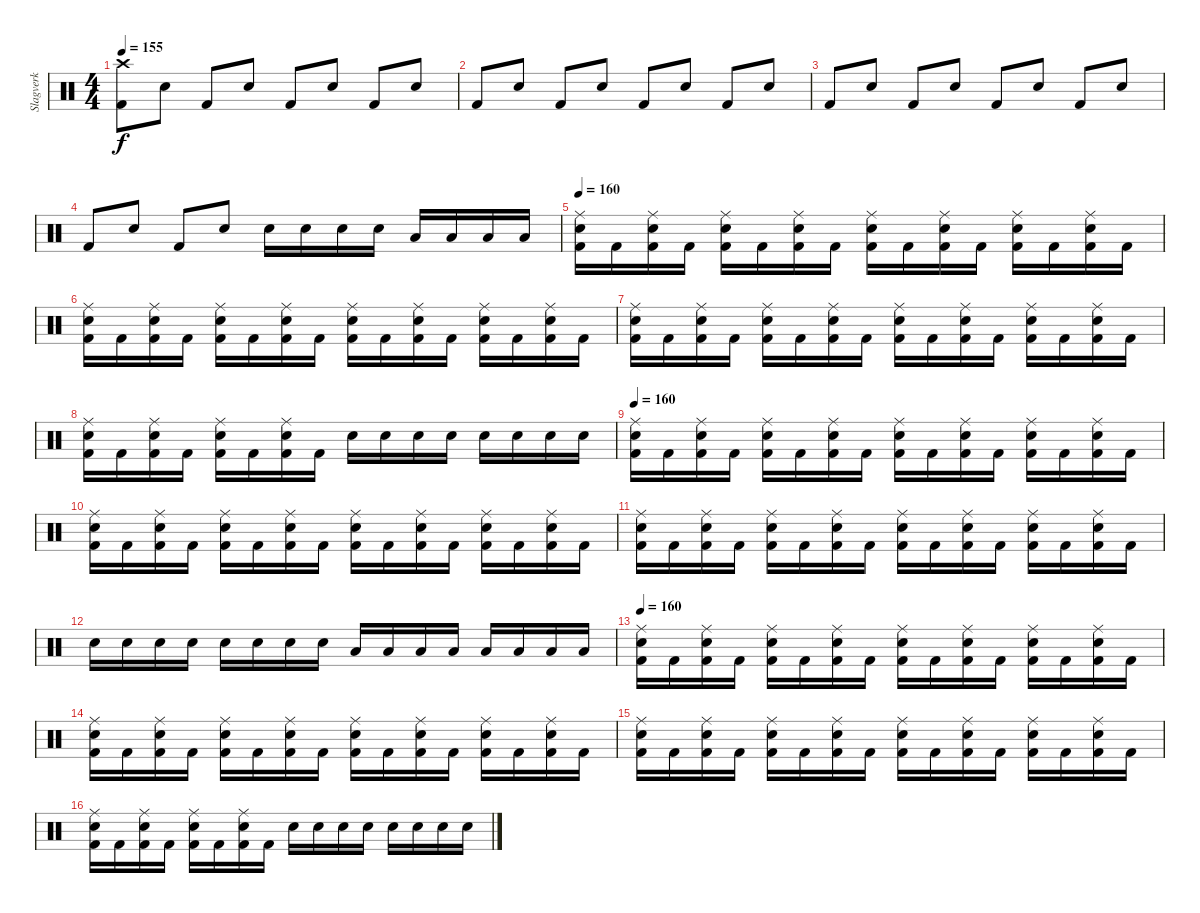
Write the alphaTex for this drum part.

\track ("Slagverk" "Slagverk") {instrument percussion}
\staff {score}
\articulation defaults
\ts (4 4)
\tempo 155
\clef neutral
\ks c
("Crash high (hit)" "Kick (hit) 2").8{dy f} "Electric Snare (hit)".8 "Kick (hit) 2".8 "Electric Snare (hit)".8 "Kick (hit) 2".8 "Electric Snare (hit)".8 "Kick (hit) 2".8 "Electric Snare (hit)".8 |
"Kick (hit) 2".8 "Electric Snare (hit)".8 "Kick (hit) 2".8 "Electric Snare (hit)".8 "Kick (hit) 2".8 "Electric Snare (hit)".8 "Kick (hit) 2".8 "Electric Snare (hit)".8 |
"Kick (hit) 2".8 "Electric Snare (hit)".8 "Kick (hit) 2".8 "Electric Snare (hit)".8 "Kick (hit) 2".8 "Electric Snare (hit)".8 "Kick (hit) 2".8 "Electric Snare (hit)".8 |
"Kick (hit) 2".8 "Electric Snare (hit)".8 "Kick (hit) 2".8 "Electric Snare (hit)".8 "Electric Snare (hit)".16 "Electric Snare (hit)".16 "Electric Snare (hit)".16 "Electric Snare (hit)".16 "Low Tom (hit)".16 "Low Tom (hit)".16 "Low Tom (hit)".16 "Low Tom (hit)".16 |
\tempo 160
("Ride (middle)" "Electric Snare (hit)" "Kick (hit) 2").16 "Kick (hit) 2".16 ("Ride (middle)" "Electric Snare (hit)" "Kick (hit) 2").16 "Kick (hit) 2".16 ("Ride (middle)" "Electric Snare (hit)" "Kick (hit) 2").16 "Kick (hit) 2".16 ("Ride (middle)" "Electric Snare (hit)" "Kick (hit) 2").16 "Kick (hit) 2".16 ("Ride (middle)" "Electric Snare (hit)" "Kick (hit) 2").16 "Kick (hit) 2".16 ("Ride (middle)" "Electric Snare (hit)" "Kick (hit) 2").16 "Kick (hit) 2".16 ("Ride (middle)" "Electric Snare (hit)" "Kick (hit) 2").16 "Kick (hit) 2".16 ("Ride (middle)" "Electric Snare (hit)" "Kick (hit) 2").16 "Kick (hit) 2".16 |
("Ride (middle)" "Electric Snare (hit)" "Kick (hit) 2").16 "Kick (hit) 2".16 ("Ride (middle)" "Electric Snare (hit)" "Kick (hit) 2").16 "Kick (hit) 2".16 ("Ride (middle)" "Electric Snare (hit)" "Kick (hit) 2").16 "Kick (hit) 2".16 ("Ride (middle)" "Electric Snare (hit)" "Kick (hit) 2").16 "Kick (hit) 2".16 ("Ride (middle)" "Electric Snare (hit)" "Kick (hit) 2").16 "Kick (hit) 2".16 ("Ride (middle)" "Electric Snare (hit)" "Kick (hit) 2").16 "Kick (hit) 2".16 ("Ride (middle)" "Electric Snare (hit)" "Kick (hit) 2").16 "Kick (hit) 2".16 ("Ride (middle)" "Electric Snare (hit)" "Kick (hit) 2").16 "Kick (hit) 2".16 |
("Ride (middle)" "Electric Snare (hit)" "Kick (hit) 2").16 "Kick (hit) 2".16 ("Ride (middle)" "Electric Snare (hit)" "Kick (hit) 2").16 "Kick (hit) 2".16 ("Ride (middle)" "Electric Snare (hit)" "Kick (hit) 2").16 "Kick (hit) 2".16 ("Ride (middle)" "Electric Snare (hit)" "Kick (hit) 2").16 "Kick (hit) 2".16 ("Ride (middle)" "Electric Snare (hit)" "Kick (hit) 2").16 "Kick (hit) 2".16 ("Ride (middle)" "Electric Snare (hit)" "Kick (hit) 2").16 "Kick (hit) 2".16 ("Ride (middle)" "Electric Snare (hit)" "Kick (hit) 2").16 "Kick (hit) 2".16 ("Ride (middle)" "Electric Snare (hit)" "Kick (hit) 2").16 "Kick (hit) 2".16 |
("Ride (middle)" "Electric Snare (hit)" "Kick (hit) 2").16 "Kick (hit) 2".16 ("Ride (middle)" "Electric Snare (hit)" "Kick (hit) 2").16 "Kick (hit) 2".16 ("Ride (middle)" "Electric Snare (hit)" "Kick (hit) 2").16 "Kick (hit) 2".16 ("Ride (middle)" "Electric Snare (hit)" "Kick (hit) 2").16 "Kick (hit) 2".16 "Electric Snare (hit)".16 "Electric Snare (hit)".16 "Electric Snare (hit)".16 "Electric Snare (hit)".16 "Electric Snare (hit)".16 "Electric Snare (hit)".16 "Electric Snare (hit)".16 "Electric Snare (hit)".16 |
\tempo 160
("Ride (middle)" "Electric Snare (hit)" "Kick (hit) 2").16 "Kick (hit) 2".16 ("Ride (middle)" "Electric Snare (hit)" "Kick (hit) 2").16 "Kick (hit) 2".16 ("Ride (middle)" "Electric Snare (hit)" "Kick (hit) 2").16 "Kick (hit) 2".16 ("Ride (middle)" "Electric Snare (hit)" "Kick (hit) 2").16 "Kick (hit) 2".16 ("Ride (middle)" "Electric Snare (hit)" "Kick (hit) 2").16 "Kick (hit) 2".16 ("Ride (middle)" "Electric Snare (hit)" "Kick (hit) 2").16 "Kick (hit) 2".16 ("Ride (middle)" "Electric Snare (hit)" "Kick (hit) 2").16 "Kick (hit) 2".16 ("Ride (middle)" "Electric Snare (hit)" "Kick (hit) 2").16 "Kick (hit) 2".16 |
("Ride (middle)" "Electric Snare (hit)" "Kick (hit) 2").16 "Kick (hit) 2".16 ("Ride (middle)" "Electric Snare (hit)" "Kick (hit) 2").16 "Kick (hit) 2".16 ("Ride (middle)" "Electric Snare (hit)" "Kick (hit) 2").16 "Kick (hit) 2".16 ("Ride (middle)" "Electric Snare (hit)" "Kick (hit) 2").16 "Kick (hit) 2".16 ("Ride (middle)" "Electric Snare (hit)" "Kick (hit) 2").16 "Kick (hit) 2".16 ("Ride (middle)" "Electric Snare (hit)" "Kick (hit) 2").16 "Kick (hit) 2".16 ("Ride (middle)" "Electric Snare (hit)" "Kick (hit) 2").16 "Kick (hit) 2".16 ("Ride (middle)" "Electric Snare (hit)" "Kick (hit) 2").16 "Kick (hit) 2".16 |
("Ride (middle)" "Electric Snare (hit)" "Kick (hit) 2").16 "Kick (hit) 2".16 ("Ride (middle)" "Electric Snare (hit)" "Kick (hit) 2").16 "Kick (hit) 2".16 ("Ride (middle)" "Electric Snare (hit)" "Kick (hit) 2").16 "Kick (hit) 2".16 ("Ride (middle)" "Electric Snare (hit)" "Kick (hit) 2").16 "Kick (hit) 2".16 ("Ride (middle)" "Electric Snare (hit)" "Kick (hit) 2").16 "Kick (hit) 2".16 ("Ride (middle)" "Electric Snare (hit)" "Kick (hit) 2").16 "Kick (hit) 2".16 ("Ride (middle)" "Electric Snare (hit)" "Kick (hit) 2").16 "Kick (hit) 2".16 ("Ride (middle)" "Electric Snare (hit)" "Kick (hit) 2").16 "Kick (hit) 2".16 |
"Electric Snare (hit)".16 "Electric Snare (hit)".16 "Electric Snare (hit)".16 "Electric Snare (hit)".16 "Electric Snare (hit)".16 "Electric Snare (hit)".16 "Electric Snare (hit)".16 "Electric Snare (hit)".16 "Low Tom (hit)".16 "Low Tom (hit)".16 "Low Tom (hit)".16 "Low Tom (hit)".16 "Low Tom (hit)".16 "Low Tom (hit)".16 "Low Tom (hit)".16 "Low Tom (hit)".16 |
\tempo 160
("Ride (middle)" "Electric Snare (hit)" "Kick (hit) 2").16 "Kick (hit) 2".16 ("Ride (middle)" "Electric Snare (hit)" "Kick (hit) 2").16 "Kick (hit) 2".16 ("Ride (middle)" "Electric Snare (hit)" "Kick (hit) 2").16 "Kick (hit) 2".16 ("Ride (middle)" "Electric Snare (hit)" "Kick (hit) 2").16 "Kick (hit) 2".16 ("Ride (middle)" "Electric Snare (hit)" "Kick (hit) 2").16 "Kick (hit) 2".16 ("Ride (middle)" "Electric Snare (hit)" "Kick (hit) 2").16 "Kick (hit) 2".16 ("Ride (middle)" "Electric Snare (hit)" "Kick (hit) 2").16 "Kick (hit) 2".16 ("Ride (middle)" "Electric Snare (hit)" "Kick (hit) 2").16 "Kick (hit) 2".16 |
("Ride (middle)" "Electric Snare (hit)" "Kick (hit) 2").16 "Kick (hit) 2".16 ("Ride (middle)" "Electric Snare (hit)" "Kick (hit) 2").16 "Kick (hit) 2".16 ("Ride (middle)" "Electric Snare (hit)" "Kick (hit) 2").16 "Kick (hit) 2".16 ("Ride (middle)" "Electric Snare (hit)" "Kick (hit) 2").16 "Kick (hit) 2".16 ("Ride (middle)" "Electric Snare (hit)" "Kick (hit) 2").16 "Kick (hit) 2".16 ("Ride (middle)" "Electric Snare (hit)" "Kick (hit) 2").16 "Kick (hit) 2".16 ("Ride (middle)" "Electric Snare (hit)" "Kick (hit) 2").16 "Kick (hit) 2".16 ("Ride (middle)" "Electric Snare (hit)" "Kick (hit) 2").16 "Kick (hit) 2".16 |
("Ride (middle)" "Electric Snare (hit)" "Kick (hit) 2").16 "Kick (hit) 2".16 ("Ride (middle)" "Electric Snare (hit)" "Kick (hit) 2").16 "Kick (hit) 2".16 ("Ride (middle)" "Electric Snare (hit)" "Kick (hit) 2").16 "Kick (hit) 2".16 ("Ride (middle)" "Electric Snare (hit)" "Kick (hit) 2").16 "Kick (hit) 2".16 ("Ride (middle)" "Electric Snare (hit)" "Kick (hit) 2").16 "Kick (hit) 2".16 ("Ride (middle)" "Electric Snare (hit)" "Kick (hit) 2").16 "Kick (hit) 2".16 ("Ride (middle)" "Electric Snare (hit)" "Kick (hit) 2").16 "Kick (hit) 2".16 ("Ride (middle)" "Electric Snare (hit)" "Kick (hit) 2").16 "Kick (hit) 2".16 |
("Ride (middle)" "Electric Snare (hit)" "Kick (hit) 2").16 "Kick (hit) 2".16 ("Ride (middle)" "Electric Snare (hit)" "Kick (hit) 2").16 "Kick (hit) 2".16 ("Ride (middle)" "Electric Snare (hit)" "Kick (hit) 2").16 "Kick (hit) 2".16 ("Ride (middle)" "Electric Snare (hit)" "Kick (hit) 2").16 "Kick (hit) 2".16 "Electric Snare (hit)".16 "Electric Snare (hit)".16 "Electric Snare (hit)".16 "Electric Snare (hit)".16 "Electric Snare (hit)".16 "Electric Snare (hit)".16 "Electric Snare (hit)".16 "Electric Snare (hit)".16
